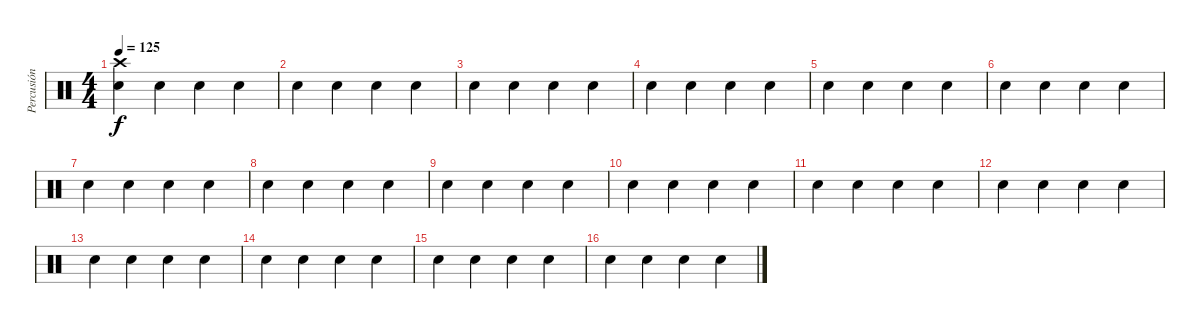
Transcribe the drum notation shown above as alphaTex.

\track ("Percusión" "Percusión") {instrument percussion}
\staff {score}
\articulation defaults
\ts (4 4)
\tempo 125
\clef neutral
\ks c
("Electric Snare (hit)" "Crash high (hit)").4{dy f} "Electric Snare (hit)".4 "Electric Snare (hit)".4 "Electric Snare (hit)".4 |
"Electric Snare (hit)".4 "Electric Snare (hit)".4 "Electric Snare (hit)".4 "Electric Snare (hit)".4 |
"Electric Snare (hit)".4 "Electric Snare (hit)".4 "Electric Snare (hit)".4 "Electric Snare (hit)".4 |
"Electric Snare (hit)".4 "Electric Snare (hit)".4 "Electric Snare (hit)".4 "Electric Snare (hit)".4 |
"Electric Snare (hit)".4 "Electric Snare (hit)".4 "Electric Snare (hit)".4 "Electric Snare (hit)".4 |
"Electric Snare (hit)".4 "Electric Snare (hit)".4 "Electric Snare (hit)".4 "Electric Snare (hit)".4 |
"Electric Snare (hit)".4 "Electric Snare (hit)".4 "Electric Snare (hit)".4 "Electric Snare (hit)".4 |
"Electric Snare (hit)".4 "Electric Snare (hit)".4 "Electric Snare (hit)".4 "Electric Snare (hit)".4 |
"Electric Snare (hit)".4 "Electric Snare (hit)".4 "Electric Snare (hit)".4 "Electric Snare (hit)".4 |
"Electric Snare (hit)".4 "Electric Snare (hit)".4 "Electric Snare (hit)".4 "Electric Snare (hit)".4 |
"Electric Snare (hit)".4 "Electric Snare (hit)".4 "Electric Snare (hit)".4 "Electric Snare (hit)".4 |
"Electric Snare (hit)".4 "Electric Snare (hit)".4 "Electric Snare (hit)".4 "Electric Snare (hit)".4 |
"Electric Snare (hit)".4 "Electric Snare (hit)".4 "Electric Snare (hit)".4 "Electric Snare (hit)".4 |
"Electric Snare (hit)".4 "Electric Snare (hit)".4 "Electric Snare (hit)".4 "Electric Snare (hit)".4 |
"Electric Snare (hit)".4 "Electric Snare (hit)".4 "Electric Snare (hit)".4 "Electric Snare (hit)".4 |
"Electric Snare (hit)".4 "Electric Snare (hit)".4 "Electric Snare (hit)".4 "Electric Snare (hit)".4
